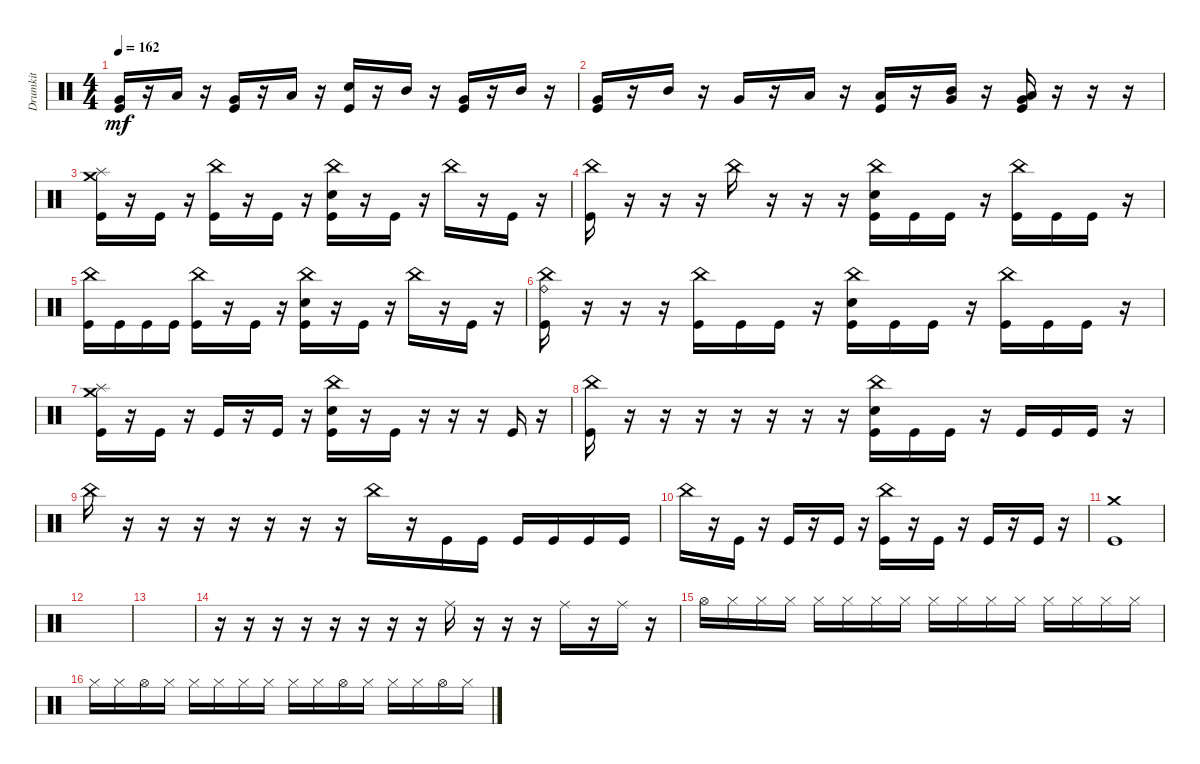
\track ("Drumkit" "Drumkit") {instrument percussion}
\staff {score}
\articulation defaults
\ts (4 4)
\tempo 162
\clef neutral
\ks c
("Kick (hit)" "Very Low Tom (hit)").16{dy mf} r.16 "Low Tom (hit)".16 r.16 ("Kick (hit)" "Very Low Tom (hit)").16 r.16 "Low Tom (hit)".16 r.16 ("Kick (hit)" "Snare (hit) 2").16 r.16 "Mid Tom (hit)".16 r.16 ("Kick (hit)" "Very Low Tom (hit)").16 r.16 "Mid Tom (hit)".16 r.16 |
("Kick (hit)" "Very Low Tom (hit)").16 r.16 "Mid Tom (hit)".16 r.16 "Very Low Tom (hit)".16 r.16 "Low Tom (hit)".16 r.16 ("Kick (hit)" "Low Tom (hit)").16 r.16 ("Mid Tom (hit)" "Very Low Tom (hit)").16 r.16 ("Very Low Tom (hit)" "Kick (hit)" "Low Floor Tom (hit)").16 r.16 r.16 r.16 |
("Kick (hit)" "Crash medium (hit)" "Splash (hit)").16 r.16 "Kick (hit)".16 r.16 ("Kick (hit)" "China (hit)").16 r.16 "Kick (hit)".16 r.16 ("Kick (hit)" "Snare (hit) 2" "China (hit)").16 r.16 "Kick (hit)".16 r.16 "China (hit)".16 r.16 "Kick (hit)".16 r.16 |
("Kick (hit)" "China (hit)").16 r.16 r.16 r.16 "China (hit)".16 r.16 r.16 r.16 ("Kick (hit)" "Snare (hit) 2" "China (hit)").16 "Kick (hit)".16 "Kick (hit)".16 r.16 ("Kick (hit)" "China (hit)").16 "Kick (hit)".16 "Kick (hit)".16 r.16 |
("Kick (hit)" "China (hit)").16 "Kick (hit)".16 "Kick (hit)".16 "Kick (hit)".16 ("Kick (hit)" "China (hit)").16 r.16 "Kick (hit)".16 r.16 ("Kick (hit)" "Snare (hit) 2" "China (hit)").16 r.16 "Kick (hit)".16 r.16 "China (hit)".16 r.16 "Kick (hit)".16 r.16 |
("Kick (hit)" "China (hit)" "Ride (bell)").16 r.16 r.16 r.16 ("Kick (hit)" "China (hit)").16 "Kick (hit)".16 "Kick (hit)".16 r.16 ("Kick (hit)" "Snare (hit) 2" "China (hit)").16 "Kick (hit)".16 "Kick (hit)".16 r.16 ("Kick (hit)" "China (hit)").16 "Kick (hit)".16 "Kick (hit)".16 r.16 |
("Kick (hit)" "Splash (hit)" "Crash medium (hit)").16 r.16 "Kick (hit)".16 r.16 "Kick (hit)".16 r.16 "Kick (hit)".16 r.16 ("Kick (hit)" "Snare (hit) 2" "China (hit)").16 r.16 "Kick (hit)".16 r.16 r.16 r.16 "Kick (hit)".16 r.16 |
("Kick (hit)" "China (hit)").16 r.16 r.16 r.16 r.16 r.16 r.16 r.16 ("Kick (hit)" "Snare (hit) 2" "China (hit)").16 "Kick (hit)".16 "Kick (hit)".16 r.16 "Kick (hit)".16 "Kick (hit)".16 "Kick (hit)".16 r.16 |
"China (hit)".16 r.16 r.16 r.16 r.16 r.16 r.16 r.16 "China (hit)".16 r.16 "Kick (hit)".16 "Kick (hit)".16 "Kick (hit)".16 "Kick (hit)".16 "Kick (hit)".16 "Kick (hit)".16 |
"China (hit)".16 r.16 "Kick (hit)".16 r.16 "Kick (hit)".16 r.16 "Kick (hit)".16 r.16 ("Kick (hit)" "China (hit)").16 r.16 "Kick (hit)".16 r.16 "Kick (hit)".16 r.16 "Kick (hit)".16 r.16 |
("Kick (hit)" "Crash medium (hit)").1 |
|
|
r.16 r.16 r.16 r.16 r.16 r.16 r.16 r.16 "Ride (middle)".16 r.16 r.16 r.16 "Ride (middle)".16 r.16 "Ride (middle)".16 r.16 |
"Hi-Hat (open)".16 "Hi-Hat (closed)".16 "Hi-Hat (closed)".16 "Hi-Hat (closed)".16 "Hi-Hat (closed)".16 "Hi-Hat (closed)".16 "Hi-Hat (closed)".16 "Hi-Hat (closed)".16 "Hi-Hat (closed)".16 "Hi-Hat (closed)".16 "Hi-Hat (closed)".16 "Hi-Hat (closed)".16 "Hi-Hat (closed)".16 "Hi-Hat (closed)".16 "Hi-Hat (closed)".16 "Hi-Hat (closed)".16 |
"Hi-Hat (closed)".16 "Hi-Hat (closed)".16 "Hi-Hat (open)".16 "Hi-Hat (closed)".16 "Hi-Hat (closed)".16 "Hi-Hat (closed)".16 "Hi-Hat (closed)".16 "Hi-Hat (closed)".16 "Hi-Hat (closed)".16 "Hi-Hat (closed)".16 "Hi-Hat (open)".16 "Hi-Hat (closed)".16 "Hi-Hat (closed)".16 "Hi-Hat (closed)".16 "Hi-Hat (open)".16 "Hi-Hat (closed)".16
